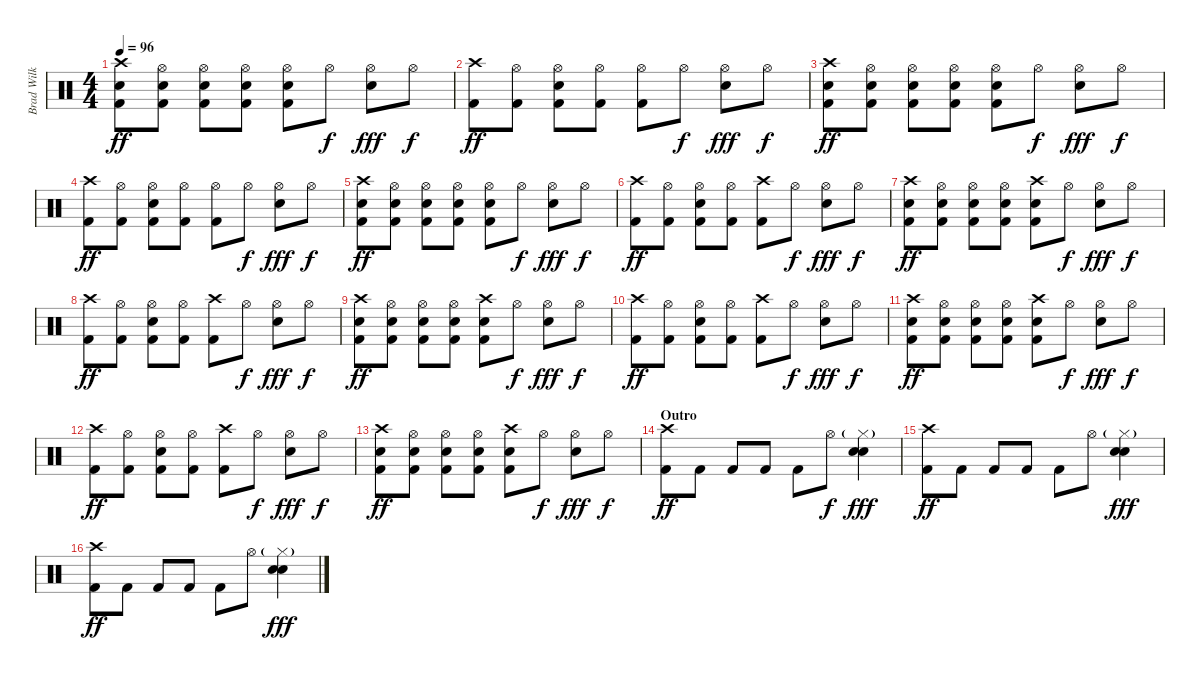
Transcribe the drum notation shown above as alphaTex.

\track ("Brad Wilk / Drums" "Brad Wilk ") {instrument percussion}
\staff {score}
\articulation defaults
\ts (4 4)
\tempo 96
\clef neutral
\ks c
("Crash high (hit)" "Electric Snare (hit)" "Kick (hit) 2").8{dy ff} ("Hi-Hat (open)" "Electric Snare (hit)" "Kick (hit) 2").8 ("Hi-Hat (open)" "Electric Snare (hit)" "Kick (hit) 2").8 ("Hi-Hat (open)" "Electric Snare (hit)" "Kick (hit) 2").8 ("Hi-Hat (open)" "Electric Snare (hit)" "Kick (hit) 2").8 "Hi-Hat (open)".8{dy f} ("Hi-Hat (open)" "Electric Snare (hit)").8{dy fff} "Hi-Hat (open)".8{dy f} |
("Crash high (hit)" "Kick (hit) 2").8{dy ff} ("Hi-Hat (open)" "Kick (hit) 2").8 ("Hi-Hat (open)" "Electric Snare (hit)" "Kick (hit) 2").8 ("Hi-Hat (open)" "Kick (hit) 2").8 ("Hi-Hat (open)" "Kick (hit) 2").8 "Hi-Hat (open)".8{dy f} ("Hi-Hat (open)" "Electric Snare (hit)").8{dy fff} "Hi-Hat (open)".8{dy f} |
("Crash high (hit)" "Electric Snare (hit)" "Kick (hit) 2").8{dy ff} ("Hi-Hat (open)" "Electric Snare (hit)" "Kick (hit) 2").8 ("Hi-Hat (open)" "Electric Snare (hit)" "Kick (hit) 2").8 ("Hi-Hat (open)" "Electric Snare (hit)" "Kick (hit) 2").8 ("Hi-Hat (open)" "Electric Snare (hit)" "Kick (hit) 2").8 "Hi-Hat (open)".8{dy f} ("Hi-Hat (open)" "Electric Snare (hit)").8{dy fff} "Hi-Hat (open)".8{dy f} |
("Crash high (hit)" "Kick (hit) 2").8{dy ff} ("Hi-Hat (open)" "Kick (hit) 2").8 ("Hi-Hat (open)" "Electric Snare (hit)" "Kick (hit) 2").8 ("Hi-Hat (open)" "Kick (hit) 2").8 ("Hi-Hat (open)" "Kick (hit) 2").8 "Hi-Hat (open)".8{dy f} ("Hi-Hat (open)" "Electric Snare (hit)").8{dy fff} "Hi-Hat (open)".8{dy f} |
("Crash high (hit)" "Electric Snare (hit)" "Kick (hit) 2").8{dy ff} ("Hi-Hat (open)" "Electric Snare (hit)" "Kick (hit) 2").8 ("Hi-Hat (open)" "Electric Snare (hit)" "Kick (hit) 2").8 ("Hi-Hat (open)" "Electric Snare (hit)" "Kick (hit) 2").8 ("Hi-Hat (open)" "Electric Snare (hit)" "Kick (hit) 2").8 "Hi-Hat (open)".8{dy f} ("Hi-Hat (open)" "Electric Snare (hit)").8{dy fff} "Hi-Hat (open)".8{dy f} |
("Crash high (hit)" "Kick (hit) 2").8{dy ff} ("Hi-Hat (open)" "Kick (hit) 2").8 ("Hi-Hat (open)" "Electric Snare (hit)" "Kick (hit) 2").8 ("Hi-Hat (open)" "Kick (hit) 2").8 ("Crash high (hit)" "Kick (hit) 2").8 "Hi-Hat (open)".8{dy f} ("Hi-Hat (open)" "Electric Snare (hit)").8{dy fff} "Hi-Hat (open)".8{dy f} |
("Crash high (hit)" "Electric Snare (hit)" "Kick (hit) 2").8{dy ff} ("Hi-Hat (open)" "Electric Snare (hit)" "Kick (hit) 2").8 ("Hi-Hat (open)" "Electric Snare (hit)" "Kick (hit) 2").8 ("Hi-Hat (open)" "Electric Snare (hit)" "Kick (hit) 2").8 ("Crash high (hit)" "Electric Snare (hit)" "Kick (hit) 2").8 "Hi-Hat (open)".8{dy f} ("Hi-Hat (open)" "Electric Snare (hit)").8{dy fff} "Hi-Hat (open)".8{dy f} |
("Crash high (hit)" "Kick (hit) 2").8{dy ff} ("Hi-Hat (open)" "Kick (hit) 2").8 ("Hi-Hat (open)" "Electric Snare (hit)" "Kick (hit) 2").8 ("Hi-Hat (open)" "Kick (hit) 2").8 ("Crash high (hit)" "Kick (hit) 2").8 "Hi-Hat (open)".8{dy f} ("Hi-Hat (open)" "Electric Snare (hit)").8{dy fff} "Hi-Hat (open)".8{dy f} |
("Crash high (hit)" "Electric Snare (hit)" "Kick (hit) 2").8{dy ff} ("Hi-Hat (open)" "Electric Snare (hit)" "Kick (hit) 2").8 ("Hi-Hat (open)" "Electric Snare (hit)" "Kick (hit) 2").8 ("Hi-Hat (open)" "Electric Snare (hit)" "Kick (hit) 2").8 ("Crash high (hit)" "Electric Snare (hit)" "Kick (hit) 2").8 "Hi-Hat (open)".8{dy f} ("Hi-Hat (open)" "Electric Snare (hit)").8{dy fff} "Hi-Hat (open)".8{dy f} |
("Crash high (hit)" "Kick (hit) 2").8{dy ff} ("Hi-Hat (open)" "Kick (hit) 2").8 ("Hi-Hat (open)" "Electric Snare (hit)" "Kick (hit) 2").8 ("Hi-Hat (open)" "Kick (hit) 2").8 ("Crash high (hit)" "Kick (hit) 2").8 "Hi-Hat (open)".8{dy f} ("Hi-Hat (open)" "Electric Snare (hit)").8{dy fff} "Hi-Hat (open)".8{dy f} |
("Crash high (hit)" "Electric Snare (hit)" "Kick (hit) 2").8{dy ff} ("Hi-Hat (open)" "Electric Snare (hit)" "Kick (hit) 2").8 ("Hi-Hat (open)" "Electric Snare (hit)" "Kick (hit) 2").8 ("Hi-Hat (open)" "Electric Snare (hit)" "Kick (hit) 2").8 ("Crash high (hit)" "Electric Snare (hit)" "Kick (hit) 2").8 "Hi-Hat (open)".8{dy f} ("Hi-Hat (open)" "Electric Snare (hit)").8{dy fff} "Hi-Hat (open)".8{dy f} |
("Crash high (hit)" "Kick (hit) 2").8{dy ff} ("Hi-Hat (open)" "Kick (hit) 2").8 ("Hi-Hat (open)" "Electric Snare (hit)" "Kick (hit) 2").8 ("Hi-Hat (open)" "Kick (hit) 2").8 ("Crash high (hit)" "Kick (hit) 2").8 "Hi-Hat (open)".8{dy f} ("Hi-Hat (open)" "Electric Snare (hit)").8{dy fff} "Hi-Hat (open)".8{dy f} |
("Crash high (hit)" "Electric Snare (hit)" "Kick (hit) 2").8{dy ff} ("Hi-Hat (open)" "Electric Snare (hit)" "Kick (hit) 2").8 ("Hi-Hat (open)" "Electric Snare (hit)" "Kick (hit) 2").8 ("Hi-Hat (open)" "Electric Snare (hit)" "Kick (hit) 2").8 ("Crash high (hit)" "Electric Snare (hit)" "Kick (hit) 2").8 "Hi-Hat (open)".8{dy f} ("Hi-Hat (open)" "Electric Snare (hit)").8{dy fff} "Hi-Hat (open)".8{dy f} |
\section ("" "Outro")
("Crash high (hit)" "Kick (hit) 2").8{dy ff} "Kick (hit) 2".8 "Kick (hit) 2".8 "Kick (hit) 2".8 "Kick (hit) 2".8 "Hi-Hat (open)".8{dy f} ("Hi-Hat (closed)"{g} "Electric Snare (hit)" "Electric Snare (hit)").4{bd 60 dy fff} |
("Crash high (hit)" "Kick (hit) 2").8{dy ff} "Kick (hit) 2".8 "Kick (hit) 2".8 "Kick (hit) 2".8 "Kick (hit) 2".8 "Hi-Hat (open)".8 ("Hi-Hat (closed)"{g} "Electric Snare (hit)" "Electric Snare (hit)").4{bd 60 dy fff} |
("Crash high (hit)" "Kick (hit) 2").8{dy ff} "Kick (hit) 2".8 "Kick (hit) 2".8 "Kick (hit) 2".8 "Kick (hit) 2".8 "Hi-Hat (open)".8 ("Hi-Hat (closed)"{g} "Electric Snare (hit)" "Electric Snare (hit)").4{bd 60 dy fff}
